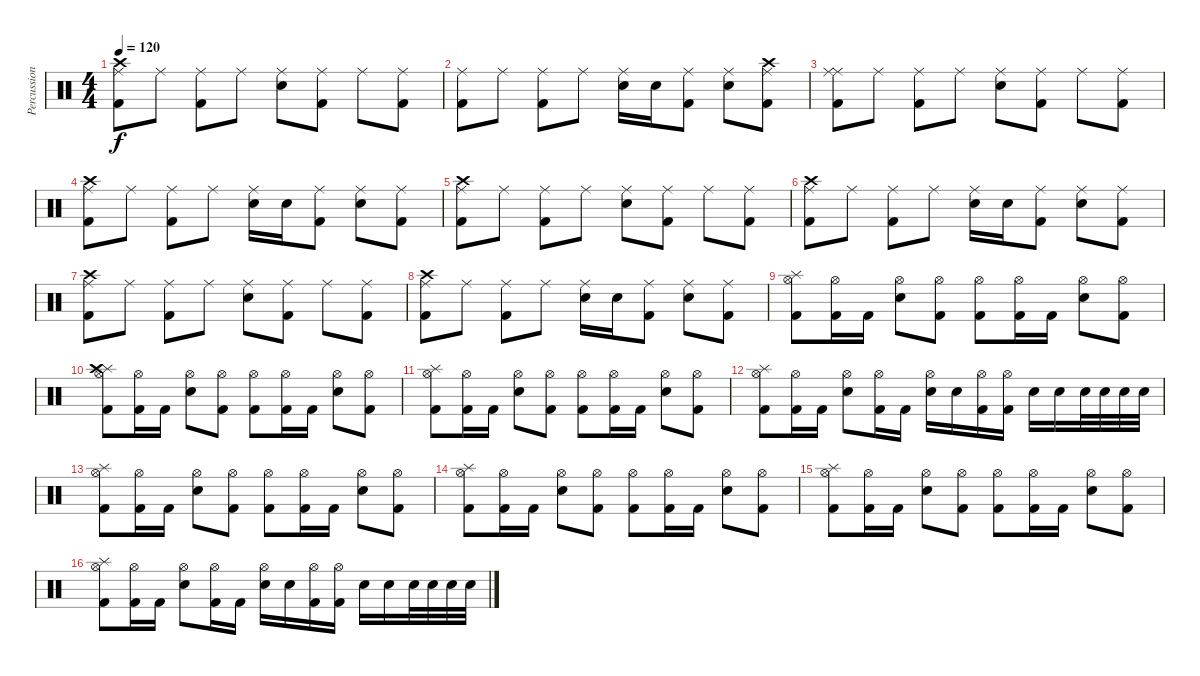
\track ("Percussion" "Percussion") {instrument percussion}
\staff {score}
\articulation defaults
\ts (4 4)
\tempo 120
\clef neutral
\ks c
("Kick (hit) 2" "Ride (middle)" "Crash high (hit)").8{dy f} "Ride (middle)".8 ("Kick (hit) 2" "Ride (middle)").8 "Ride (middle)".8 ("Snare (hit) 2" "Ride (middle)").8 ("Kick (hit) 2" "Ride (middle)").8 "Ride (middle)".8 ("Kick (hit) 2" "Ride (middle)").8 |
("Kick (hit) 2" "Ride (middle)").8 "Ride (middle)".8 ("Kick (hit) 2" "Ride (middle)").8 "Ride (middle)".8 ("Snare (hit) 2" "Ride (middle)").16 "Snare (hit) 2".16 ("Kick (hit) 2" "Ride (middle)").8 ("Snare (hit) 2" "Ride (middle)").8 ("Kick (hit) 2" "Ride (middle)" "Crash high (hit)").8 |
("Kick (hit) 2" "Ride (middle)" "Ride (middle)").8 "Ride (middle)".8 ("Kick (hit) 2" "Ride (middle)").8 "Ride (middle)".8 ("Snare (hit) 2" "Ride (middle)").8 ("Kick (hit) 2" "Ride (middle)").8 "Ride (middle)".8 ("Kick (hit) 2" "Ride (middle)").8 |
("Kick (hit) 2" "Ride (middle)" "Crash high (hit)").8 "Ride (middle)".8 ("Kick (hit) 2" "Ride (middle)").8 "Ride (middle)".8 ("Snare (hit) 2" "Ride (middle)").16 "Snare (hit) 2".16 ("Kick (hit) 2" "Ride (middle)").8 ("Snare (hit) 2" "Ride (middle)").8 ("Kick (hit) 2" "Ride (middle)").8 |
("Kick (hit) 2" "Ride (middle)" "Crash high (hit)").8 "Ride (middle)".8 ("Kick (hit) 2" "Ride (middle)").8 "Ride (middle)".8 ("Snare (hit) 2" "Ride (middle)").8 ("Kick (hit) 2" "Ride (middle)").8 "Ride (middle)".8 ("Kick (hit) 2" "Ride (middle)").8 |
("Kick (hit) 2" "Ride (middle)" "Crash high (hit)").8 "Ride (middle)".8 ("Kick (hit) 2" "Ride (middle)").8 "Ride (middle)".8 ("Snare (hit) 2" "Ride (middle)").16 "Snare (hit) 2".16 ("Kick (hit) 2" "Ride (middle)").8 ("Snare (hit) 2" "Ride (middle)").8 ("Kick (hit) 2" "Ride (middle)").8 |
("Kick (hit) 2" "Ride (middle)" "Crash high (hit)").8 "Ride (middle)".8 ("Kick (hit) 2" "Ride (middle)").8 "Ride (middle)".8 ("Snare (hit) 2" "Ride (middle)").8 ("Kick (hit) 2" "Ride (middle)").8 "Ride (middle)".8 ("Kick (hit) 2" "Ride (middle)").8 |
("Kick (hit) 2" "Ride (middle)" "Crash high (hit)").8 "Ride (middle)".8 ("Kick (hit) 2" "Ride (middle)").8 "Ride (middle)".8 ("Snare (hit) 2" "Ride (middle)").16 "Snare (hit) 2".16 ("Kick (hit) 2" "Ride (middle)").8 ("Snare (hit) 2" "Ride (middle)").8 ("Kick (hit) 2" "Ride (middle)").8 |
("Splash (hit)" "Kick (hit) 2" "Hi-Hat (open)").8 ("Kick (hit) 2" "Hi-Hat (open)").16 "Kick (hit) 2".16 ("Snare (hit) 2" "Hi-Hat (open)").8 ("Kick (hit) 2" "Hi-Hat (open)").8 ("Kick (hit) 2" "Hi-Hat (open)").8 ("Kick (hit) 2" "Hi-Hat (open)").16 "Kick (hit) 2".16 ("Snare (hit) 2" "Hi-Hat (open)").8 ("Kick (hit) 2" "Hi-Hat (open)").8 |
("Splash (hit)" "Kick (hit) 2" "Crash high (hit)" "Hi-Hat (open)").8 ("Kick (hit) 2" "Hi-Hat (open)").16 "Kick (hit) 2".16 ("Snare (hit) 2" "Hi-Hat (open)").8 ("Kick (hit) 2" "Hi-Hat (open)").8 ("Kick (hit) 2" "Hi-Hat (open)").8 ("Kick (hit) 2" "Hi-Hat (open)").16 "Kick (hit) 2".16 ("Snare (hit) 2" "Hi-Hat (open)").8 ("Kick (hit) 2" "Hi-Hat (open)").8 |
("Splash (hit)" "Kick (hit) 2" "Hi-Hat (open)").8 ("Kick (hit) 2" "Hi-Hat (open)").16 "Kick (hit) 2".16 ("Snare (hit) 2" "Hi-Hat (open)").8 ("Kick (hit) 2" "Hi-Hat (open)").8 ("Kick (hit) 2" "Hi-Hat (open)").8 ("Kick (hit) 2" "Hi-Hat (open)").16 "Kick (hit) 2".16 ("Snare (hit) 2" "Hi-Hat (open)").8 ("Kick (hit) 2" "Hi-Hat (open)").8 |
("Splash (hit)" "Kick (hit) 2" "Hi-Hat (open)").8 ("Kick (hit) 2" "Hi-Hat (open)").16 "Kick (hit) 2".16 ("Snare (hit) 2" "Hi-Hat (open)").8 ("Kick (hit) 2" "Hi-Hat (open)").16 "Kick (hit) 2".16 ("Snare (hit) 2" "Hi-Hat (open)").16 "Snare (hit) 2".16 ("Kick (hit) 2" "Hi-Hat (open)").16 ("Kick (hit) 2" "Hi-Hat (open)").16 "Snare (hit) 2".16 "Snare (hit) 2".16 "Snare (hit) 2".32 "Snare (hit) 2".32 "Snare (hit) 2".32 "Snare (hit) 2".32 |
("Splash (hit)" "Kick (hit) 2" "Hi-Hat (open)").8 ("Kick (hit) 2" "Hi-Hat (open)").16 "Kick (hit) 2".16 ("Snare (hit) 2" "Hi-Hat (open)").8 ("Kick (hit) 2" "Hi-Hat (open)").8 ("Kick (hit) 2" "Hi-Hat (open)").8 ("Kick (hit) 2" "Hi-Hat (open)").16 "Kick (hit) 2".16 ("Snare (hit) 2" "Hi-Hat (open)").8 ("Kick (hit) 2" "Hi-Hat (open)").8 |
("Splash (hit)" "Kick (hit) 2" "Hi-Hat (open)").8 ("Kick (hit) 2" "Hi-Hat (open)").16 "Kick (hit) 2".16 ("Snare (hit) 2" "Hi-Hat (open)").8 ("Kick (hit) 2" "Hi-Hat (open)").8 ("Kick (hit) 2" "Hi-Hat (open)").8 ("Kick (hit) 2" "Hi-Hat (open)").16 "Kick (hit) 2".16 ("Snare (hit) 2" "Hi-Hat (open)").8 ("Kick (hit) 2" "Hi-Hat (open)").8 |
("Splash (hit)" "Kick (hit) 2" "Hi-Hat (open)").8 ("Kick (hit) 2" "Hi-Hat (open)").16 "Kick (hit) 2".16 ("Snare (hit) 2" "Hi-Hat (open)").8 ("Kick (hit) 2" "Hi-Hat (open)").8 ("Kick (hit) 2" "Hi-Hat (open)").8 ("Kick (hit) 2" "Hi-Hat (open)").16 "Kick (hit) 2".16 ("Snare (hit) 2" "Hi-Hat (open)").8 ("Kick (hit) 2" "Hi-Hat (open)").8 |
("Splash (hit)" "Kick (hit) 2" "Hi-Hat (open)").8 ("Kick (hit) 2" "Hi-Hat (open)").16 "Kick (hit) 2".16 ("Snare (hit) 2" "Hi-Hat (open)").8 ("Kick (hit) 2" "Hi-Hat (open)").16 "Kick (hit) 2".16 ("Snare (hit) 2" "Hi-Hat (open)").16 "Snare (hit) 2".16 ("Kick (hit) 2" "Hi-Hat (open)").16 ("Kick (hit) 2" "Hi-Hat (open)").16 "Snare (hit) 2".16 "Snare (hit) 2".16 "Snare (hit) 2".32 "Snare (hit) 2".32 "Snare (hit) 2".32 "Snare (hit) 2".32
